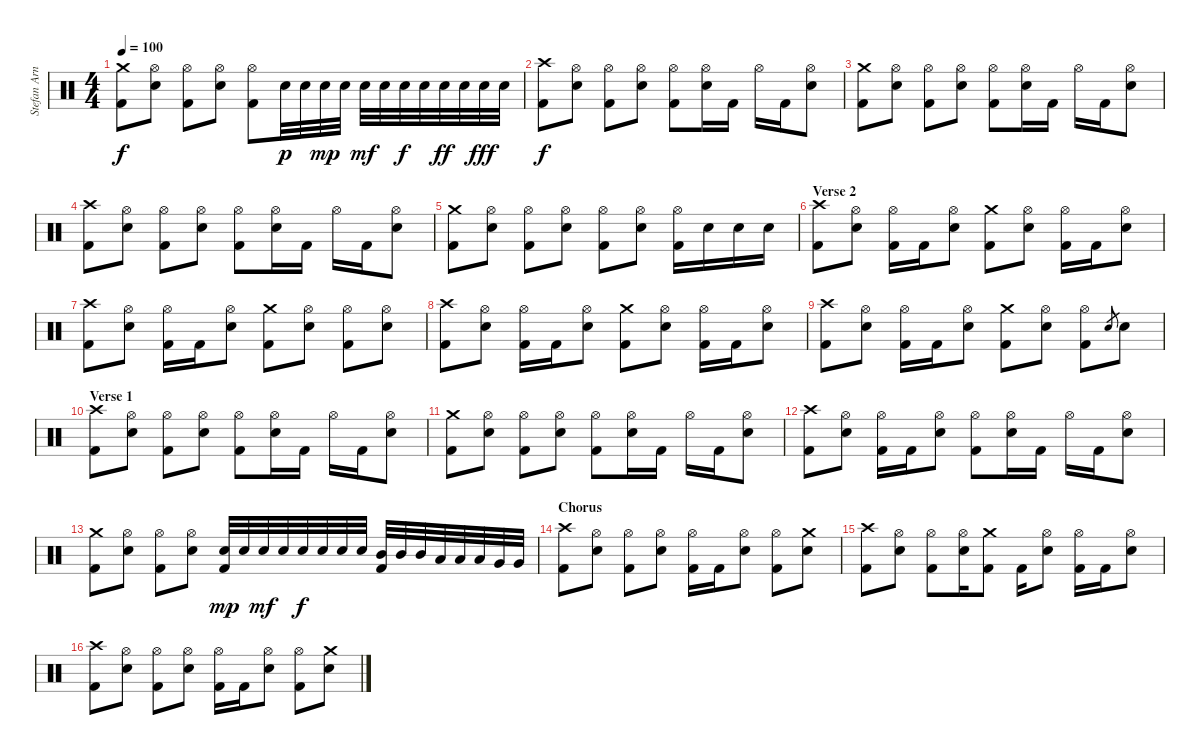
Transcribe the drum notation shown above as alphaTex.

\track ("Stefan Arnold" "Stefan Arn") {instrument percussion}
\staff {score}
\articulation defaults
\ts (4 4)
\tempo 100
\clef neutral
\ks c
("Crash medium (hit)" "Kick (hit) 2").8{dy f} ("Hi-Hat (open)" "Electric Snare (hit)").8 ("Hi-Hat (open)" "Kick (hit) 2").8 ("Hi-Hat (open)" "Electric Snare (hit)").8 ("Hi-Hat (open)" "Kick (hit) 2").8 "Electric Snare (hit)".32{dy p} "Electric Snare (hit)".32 "Electric Snare (hit)".32{dy mp} "Electric Snare (hit)".32 "Electric Snare (hit)".32{dy mf} "Electric Snare (hit)".32 "Electric Snare (hit)".32{dy f} "Electric Snare (hit)".32 "Electric Snare (hit)".32{dy ff} "Electric Snare (hit)".32 "Electric Snare (hit)".32{dy fff} "Electric Snare (hit)".32 |
("Crash high (hit)" "Kick (hit) 2").8{dy f} ("Hi-Hat (open)" "Electric Snare (hit)").8 ("Hi-Hat (open)" "Kick (hit) 2").8 ("Hi-Hat (open)" "Electric Snare (hit)").8 ("Hi-Hat (open)" "Kick (hit) 2").8 ("Hi-Hat (open)" "Electric Snare (hit)").16 "Kick (hit) 2".16 "Hi-Hat (open)".16 "Kick (hit) 2".16 ("Hi-Hat (open)" "Electric Snare (hit)").8 |
("Crash medium (hit)" "Kick (hit) 2").8 ("Hi-Hat (open)" "Electric Snare (hit)").8 ("Hi-Hat (open)" "Kick (hit) 2").8 ("Hi-Hat (open)" "Electric Snare (hit)").8 ("Hi-Hat (open)" "Kick (hit) 2").8 ("Hi-Hat (open)" "Electric Snare (hit)").16 "Kick (hit) 2".16 "Hi-Hat (open)".16 "Kick (hit) 2".16 ("Hi-Hat (open)" "Electric Snare (hit)").8 |
("Crash high (hit)" "Kick (hit) 2").8 ("Hi-Hat (open)" "Electric Snare (hit)").8 ("Hi-Hat (open)" "Kick (hit) 2").8 ("Hi-Hat (open)" "Electric Snare (hit)").8 ("Hi-Hat (open)" "Kick (hit) 2").8 ("Hi-Hat (open)" "Electric Snare (hit)").16 "Kick (hit) 2".16 "Hi-Hat (open)".16 "Kick (hit) 2".16 ("Hi-Hat (open)" "Electric Snare (hit)").8 |
("Crash medium (hit)" "Kick (hit) 2").8 ("Hi-Hat (open)" "Electric Snare (hit)").8 ("Hi-Hat (open)" "Kick (hit) 2").8 ("Hi-Hat (open)" "Electric Snare (hit)").8 ("Hi-Hat (open)" "Kick (hit) 2").8 ("Hi-Hat (open)" "Electric Snare (hit)").8 ("Hi-Hat (open)" "Kick (hit) 2").16 "Electric Snare (hit)".16 "Electric Snare (hit)".16 "Electric Snare (hit)".16 |
\section ("" "Verse 2")
("Crash high (hit)" "Kick (hit) 2").8 ("Hi-Hat (open)" "Electric Snare (hit)").8 ("Hi-Hat (open)" "Kick (hit) 2").16 "Kick (hit) 2".16 ("Hi-Hat (open)" "Electric Snare (hit)").8 ("Crash medium (hit)" "Kick (hit) 2").8 ("Hi-Hat (open)" "Electric Snare (hit)").8 ("Hi-Hat (open)" "Kick (hit) 2").16 "Kick (hit) 2".16 ("Hi-Hat (open)" "Electric Snare (hit)").8 |
("Crash high (hit)" "Kick (hit) 2").8 ("Hi-Hat (open)" "Electric Snare (hit)").8 ("Hi-Hat (open)" "Kick (hit) 2").16 "Kick (hit) 2".16 ("Hi-Hat (open)" "Electric Snare (hit)").8 ("Crash medium (hit)" "Kick (hit) 2").8 ("Hi-Hat (open)" "Electric Snare (hit)").8 ("Hi-Hat (open)" "Kick (hit) 2").8 ("Hi-Hat (open)" "Electric Snare (hit)").8 |
("Crash high (hit)" "Kick (hit) 2").8 ("Hi-Hat (open)" "Electric Snare (hit)").8 ("Hi-Hat (open)" "Kick (hit) 2").16 "Kick (hit) 2".16 ("Hi-Hat (open)" "Electric Snare (hit)").8 ("Crash medium (hit)" "Kick (hit) 2").8 ("Hi-Hat (open)" "Electric Snare (hit)").8 ("Hi-Hat (open)" "Kick (hit) 2").16 "Kick (hit) 2".16 ("Hi-Hat (open)" "Electric Snare (hit)").8 |
("Crash high (hit)" "Kick (hit) 2").8 ("Hi-Hat (open)" "Electric Snare (hit)").8 ("Hi-Hat (open)" "Kick (hit) 2").16 "Kick (hit) 2".16 ("Hi-Hat (open)" "Electric Snare (hit)").8 ("Crash medium (hit)" "Kick (hit) 2").8 ("Hi-Hat (open)" "Electric Snare (hit)").8 ("Hi-Hat (open)" "Kick (hit) 2").8 "Electric Snare (hit)".8{gr} "Electric Snare (hit)".8 |
\section ("" "Verse 1")
("Crash high (hit)" "Kick (hit) 2").8 ("Hi-Hat (open)" "Electric Snare (hit)").8 ("Hi-Hat (open)" "Kick (hit) 2").8 ("Hi-Hat (open)" "Electric Snare (hit)").8 ("Hi-Hat (open)" "Kick (hit) 2").8 ("Hi-Hat (open)" "Electric Snare (hit)").16 "Kick (hit) 2".16 "Hi-Hat (open)".16 "Kick (hit) 2".16 ("Hi-Hat (open)" "Electric Snare (hit)").8 |
("Crash medium (hit)" "Kick (hit) 2").8 ("Hi-Hat (open)" "Electric Snare (hit)").8 ("Hi-Hat (open)" "Kick (hit) 2").8 ("Hi-Hat (open)" "Electric Snare (hit)").8 ("Hi-Hat (open)" "Kick (hit) 2").8 ("Hi-Hat (open)" "Electric Snare (hit)").16 "Kick (hit) 2".16 "Hi-Hat (open)".16 "Kick (hit) 2".16 ("Hi-Hat (open)" "Electric Snare (hit)").8 |
("Crash high (hit)" "Kick (hit) 2").8 ("Hi-Hat (open)" "Electric Snare (hit)").8 ("Hi-Hat (open)" "Kick (hit) 2").16 "Kick (hit) 2".16 ("Hi-Hat (open)" "Electric Snare (hit)").8 ("Hi-Hat (open)" "Kick (hit) 2").8 ("Hi-Hat (open)" "Electric Snare (hit)").16 "Kick (hit) 2".16 "Hi-Hat (open)".16 "Kick (hit) 2".16 ("Hi-Hat (open)" "Electric Snare (hit)").8 |
("Crash medium (hit)" "Kick (hit) 2").8 ("Hi-Hat (open)" "Electric Snare (hit)").8 ("Hi-Hat (open)" "Kick (hit) 2").8 ("Hi-Hat (open)" "Electric Snare (hit)").8 ("Electric Snare (hit)" "Kick (hit) 2").32{dy mp} "Electric Snare (hit)".32 "Electric Snare (hit)".32{dy mf} "Electric Snare (hit)".32 "Electric Snare (hit)".32{dy f} "Electric Snare (hit)".32 "Electric Snare (hit)".32 "Electric Snare (hit)".32 ("Mid Tom (hit)" "Kick (hit) 2").32 "Mid Tom (hit)".32 "Mid Tom (hit)".32 "Low Tom (hit)".32 "Low Tom (hit)".32 "Low Tom (hit)".32 "Very Low Tom (hit)".32 "Very Low Tom (hit)".32 |
\section ("" "Chorus")
("Crash high (hit)" "Kick (hit) 2").8 ("Hi-Hat (open)" "Electric Snare (hit)").8 ("Hi-Hat (open)" "Kick (hit) 2").8 ("Hi-Hat (open)" "Electric Snare (hit)").8 ("Hi-Hat (open)" "Kick (hit) 2").16 "Kick (hit) 2".16 ("Hi-Hat (open)" "Electric Snare (hit)").8 ("Hi-Hat (open)" "Kick (hit) 2").8 ("Crash medium (hit)" "Electric Snare (hit)").8 |
("Crash high (hit)" "Kick (hit) 2").8 ("Hi-Hat (open)" "Electric Snare (hit)").8 ("Hi-Hat (open)" "Kick (hit) 2").8 ("Hi-Hat (open)" "Electric Snare (hit)").16 ("Crash medium (hit)" "Kick (hit) 2").8 "Kick (hit) 2".16 ("Hi-Hat (open)" "Electric Snare (hit)").8 ("Hi-Hat (open)" "Kick (hit) 2").16 "Kick (hit) 2".16 ("Hi-Hat (open)" "Electric Snare (hit)").8 |
("Crash high (hit)" "Kick (hit) 2").8 ("Hi-Hat (open)" "Electric Snare (hit)").8 ("Hi-Hat (open)" "Kick (hit) 2").8 ("Hi-Hat (open)" "Electric Snare (hit)").8 ("Hi-Hat (open)" "Kick (hit) 2").16 "Kick (hit) 2".16 ("Hi-Hat (open)" "Electric Snare (hit)").8 ("Hi-Hat (open)" "Kick (hit) 2").8 ("Crash medium (hit)" "Electric Snare (hit)").8
